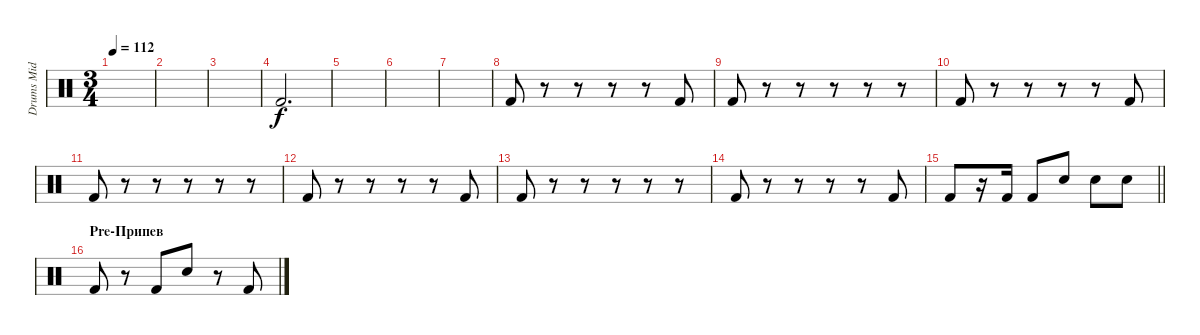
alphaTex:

\track ("Drums Mid" "Drums Mid") {instrument percussion}
\staff {score}
\articulation defaults
\ts (3 4)
\tempo 112
\clef neutral
\ks c
|
|
|
"Kick (hit) 2".2{d} |
|
|
|
"Kick (hit) 2".8 r.8 r.8 r.8 r.8 "Kick (hit) 2".8 |
"Kick (hit) 2".8 r.8 r.8 r.8 r.8 r.8 |
"Kick (hit) 2".8 r.8 r.8 r.8 r.8 "Kick (hit) 2".8 |
"Kick (hit) 2".8 r.8 r.8 r.8 r.8 r.8 |
"Kick (hit) 2".8 r.8 r.8 r.8 r.8 "Kick (hit) 2".8 |
"Kick (hit) 2".8 r.8 r.8 r.8 r.8 r.8 |
"Kick (hit) 2".8 r.8 r.8 r.8 r.8 "Kick (hit) 2".8 |
\barLineRight lightlight "Kick (hit) 2".8
r.16 "Kick (hit) 2".16 "Kick (hit) 2".8 "Snare (hit) 2".8 "Snare (hit) 2".8 "Snare (hit) 2".8 |
\section ("" "Pre-Припев")
"Kick (hit) 2".8 r.8 "Kick (hit) 2".8 "Snare (hit) 2".8 r.8 "Kick (hit) 2".8
